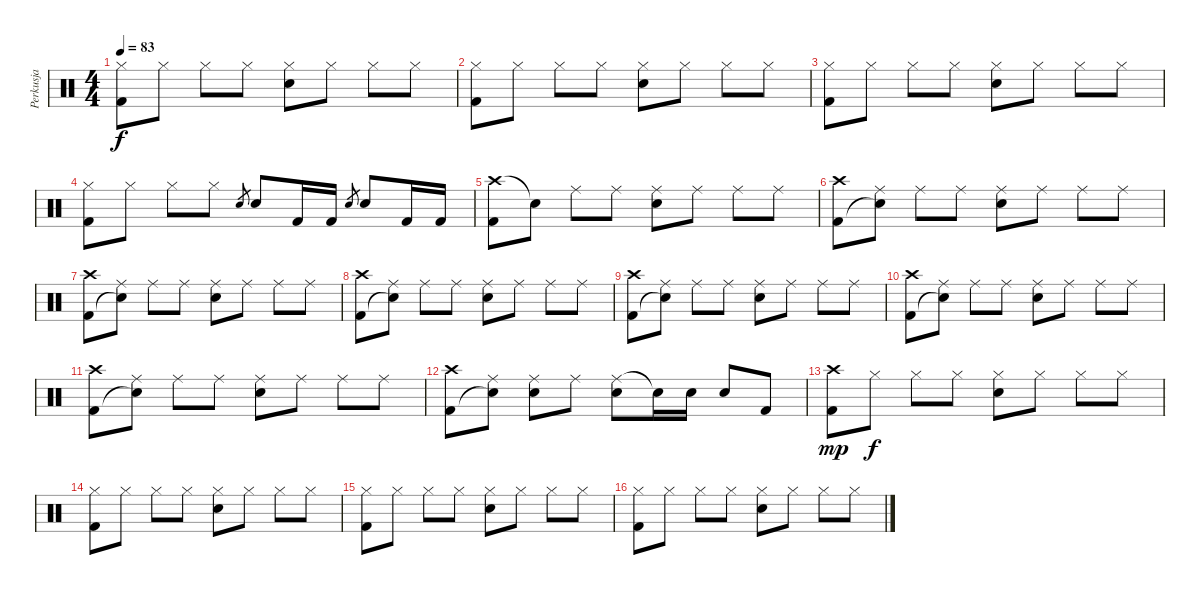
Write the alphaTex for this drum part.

\track ("Perkusja" "Perkusja") {instrument percussion}
\staff {score}
\articulation defaults
\ts (4 4)
\tempo 83
\clef neutral
\ks c
("Hi-Hat (closed)" "Kick (hit) 2").8{dy f} "Hi-Hat (closed)".8 "Hi-Hat (closed)".8 "Hi-Hat (closed)".8 ("Hi-Hat (closed)" "Snare (hit) 2").8 "Hi-Hat (closed)".8 "Hi-Hat (closed)".8 "Hi-Hat (closed)".8 |
("Hi-Hat (closed)" "Kick (hit) 2").8 "Hi-Hat (closed)".8 "Hi-Hat (closed)".8 "Hi-Hat (closed)".8 ("Hi-Hat (closed)" "Snare (hit) 2").8 "Hi-Hat (closed)".8 "Hi-Hat (closed)".8 "Hi-Hat (closed)".8 |
("Hi-Hat (closed)" "Kick (hit) 2").8 "Hi-Hat (closed)".8 "Hi-Hat (closed)".8 "Hi-Hat (closed)".8 ("Hi-Hat (closed)" "Snare (hit) 2").8 "Hi-Hat (closed)".8 "Hi-Hat (closed)".8 "Hi-Hat (closed)".8 |
("Hi-Hat (closed)" "Kick (hit) 2").8 "Hi-Hat (closed)".8 "Hi-Hat (closed)".8 "Hi-Hat (closed)".8 "Snare (hit) 2".8{gr} "Snare (hit) 2".8 "Kick (hit) 2".16 "Kick (hit) 2".16 "Snare (hit) 2".8{gr} "Snare (hit) 2".8 "Kick (hit) 2".16 "Kick (hit) 2".16 |
("Crash high (hit)" "Kick (hit) 2").8 "Snare (hit)"{t}.8 "Ride (middle)".8 "Ride (middle)".8 ("Ride (middle)" "Snare (hit) 2").8 "Ride (middle)".8 "Ride (middle)".8 "Ride (middle)".8 |
("Crash high (hit)" "Kick (hit) 2").8 ("Ride (middle)" "Snare (hit)"{t}).8 "Ride (middle)".8 "Ride (middle)".8 ("Ride (middle)" "Snare (hit) 2").8 "Ride (middle)".8 "Ride (middle)".8 "Ride (middle)".8 |
("Crash high (hit)" "Kick (hit) 2").8 ("Ride (middle)" "Snare (hit)"{t}).8 "Ride (middle)".8 "Ride (middle)".8 ("Ride (middle)" "Snare (hit) 2").8 "Ride (middle)".8 "Ride (middle)".8 "Ride (middle)".8 |
("Crash high (hit)" "Kick (hit) 2").8 ("Ride (middle)" "Snare (hit)"{t}).8 "Ride (middle)".8 "Ride (middle)".8 ("Ride (middle)" "Snare (hit) 2").8 "Ride (middle)".8 "Ride (middle)".8 "Ride (middle)".8 |
("Crash high (hit)" "Kick (hit) 2").8 ("Ride (middle)" "Snare (hit)"{t}).8 "Ride (middle)".8 "Ride (middle)".8 ("Ride (middle)" "Snare (hit) 2").8 "Ride (middle)".8 "Ride (middle)".8 "Ride (middle)".8 |
("Crash high (hit)" "Kick (hit) 2").8 ("Ride (middle)" "Snare (hit)"{t}).8 "Ride (middle)".8 "Ride (middle)".8 ("Ride (middle)" "Snare (hit) 2").8 "Ride (middle)".8 "Ride (middle)".8 "Ride (middle)".8 |
("Crash high (hit)" "Kick (hit) 2").8 ("Ride (middle)" "Snare (hit)"{t}).8 "Ride (middle)".8 "Ride (middle)".8 ("Ride (middle)" "Snare (hit) 2").8 "Ride (middle)".8 "Ride (middle)".8 "Ride (middle)".8 |
("Crash high (hit)" "Kick (hit) 2").8 ("Ride (middle)" "Snare (hit)"{t}).8 ("Ride (middle)" "Snare (hit) 2").8 "Ride (middle)".8 ("Ride (middle)" "Snare (hit) 2").8 "Snare (hit)"{t}.16 "Snare (hit) 2".16 "Snare (hit) 2".8 "Kick (hit) 2".8 |
("Crash high (hit)" "Kick (hit) 2").8{dy mp} "Hi-Hat (closed)".8{dy f} "Hi-Hat (closed)".8 "Hi-Hat (closed)".8 ("Hi-Hat (closed)" "Snare (hit) 2").8 "Hi-Hat (closed)".8 "Hi-Hat (closed)".8 "Hi-Hat (closed)".8 |
("Hi-Hat (closed)" "Kick (hit) 2").8 "Hi-Hat (closed)".8 "Hi-Hat (closed)".8 "Hi-Hat (closed)".8 ("Hi-Hat (closed)" "Snare (hit) 2").8 "Hi-Hat (closed)".8 "Hi-Hat (closed)".8 "Hi-Hat (closed)".8 |
("Hi-Hat (closed)" "Kick (hit) 2").8 "Hi-Hat (closed)".8 "Hi-Hat (closed)".8 "Hi-Hat (closed)".8 ("Hi-Hat (closed)" "Snare (hit) 2").8 "Hi-Hat (closed)".8 "Hi-Hat (closed)".8 "Hi-Hat (closed)".8 |
("Hi-Hat (closed)" "Kick (hit) 2").8 "Hi-Hat (closed)".8 "Hi-Hat (closed)".8 "Hi-Hat (closed)".8 ("Hi-Hat (closed)" "Snare (hit) 2").8 "Hi-Hat (closed)".8 "Hi-Hat (closed)".8 "Hi-Hat (closed)".8
